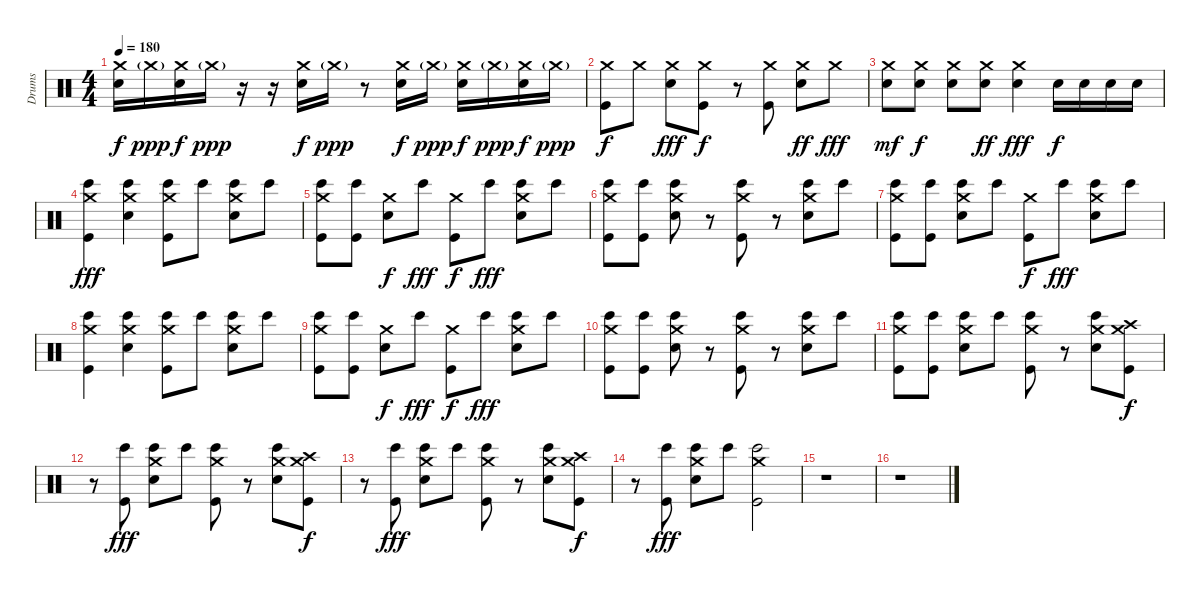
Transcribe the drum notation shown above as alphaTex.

\track ("Drums" "Drums") {instrument percussion}
\staff {score}
\articulation defaults
\ts (4 4)
\tempo 180
\clef neutral
\ks c
("Crash medium (hit)" "Electric Snare (hit)").16{dy f} "Crash medium (hit)"{g}.16{dy ppp} ("Crash medium (hit)" "Electric Snare (hit)").16{dy f} "Crash medium (hit)"{g}.16{dy ppp} r.16 r.16 ("Crash medium (hit)" "Electric Snare (hit)").16{dy f} "Crash medium (hit)"{g}.16{dy ppp} r.8 ("Crash medium (hit)" "Electric Snare (hit)").16{dy f} "Crash medium (hit)"{g}.16{dy ppp} ("Crash medium (hit)" "Electric Snare (hit)").16{dy f} "Crash medium (hit)"{g}.16{dy ppp} ("Crash medium (hit)" "Electric Snare (hit)").16{dy f} "Crash medium (hit)"{g}.16{dy ppp} |
("Crash medium (hit)" "Kick (hit)").8{dy f} "Crash medium (hit)".8 ("Crash medium (hit)" "Electric Snare (hit)").8{dy fff} ("Crash medium (hit)" "Kick (hit)").8{dy f} r.8 ("Crash medium (hit)" "Kick (hit)").8 ("Crash medium (hit)" "Electric Snare (hit)").8{dy ff} "Crash medium (hit)".8{dy fff} |
("Crash medium (hit)" "Electric Snare (hit)").8{dy mf} ("Crash medium (hit)" "Electric Snare (hit)").8{dy f} ("Crash medium (hit)" "Electric Snare (hit)").8 ("Crash medium (hit)" "Electric Snare (hit)").8{dy ff} ("Crash medium (hit)" "Electric Snare (hit)").4{dy fff} "Electric Snare (hit)".16{dy f} "Electric Snare (hit)".16 "Electric Snare (hit)".16 "Electric Snare (hit)".16 |
("Crash medium (hit)" "Bongo High (hit)" "Kick (hit)").4{dy fff} ("Crash medium (hit)" "Electric Snare (hit)" "Bongo High (hit)").4 ("Crash medium (hit)" "Bongo High (hit)" "Kick (hit)").8 "Bongo High (hit)".8 ("Crash medium (hit)" "Electric Snare (hit)" "Bongo High (hit)").8 "Bongo High (hit)".8 |
("Crash medium (hit)" "Bongo High (hit)" "Kick (hit)").8 ("Bongo High (hit)" "Kick (hit)").8 ("Crash medium (hit)" "Electric Snare (hit)").8{dy f} "Bongo High (hit)".8{dy fff} ("Crash medium (hit)" "Kick (hit)").8{dy f} "Bongo High (hit)".8{dy fff} ("Crash medium (hit)" "Electric Snare (hit)" "Bongo High (hit)").8 "Bongo High (hit)".8 |
("Crash medium (hit)" "Bongo High (hit)" "Kick (hit)").8 ("Bongo High (hit)" "Kick (hit)").8 ("Crash medium (hit)" "Electric Snare (hit)" "Bongo High (hit)").8 r.8 ("Crash medium (hit)" "Bongo High (hit)" "Kick (hit)").8 r.8 ("Crash medium (hit)" "Electric Snare (hit)" "Bongo High (hit)").8 "Bongo High (hit)".8 |
("Crash medium (hit)" "Bongo High (hit)" "Kick (hit)").8 ("Bongo High (hit)" "Kick (hit)").8 ("Crash medium (hit)" "Electric Snare (hit)" "Bongo High (hit)").8 "Bongo High (hit)".8 ("Crash medium (hit)" "Kick (hit)").8{dy f} "Bongo High (hit)".8{dy fff} ("Crash medium (hit)" "Electric Snare (hit)" "Bongo High (hit)").8 "Bongo High (hit)".8 |
("Crash medium (hit)" "Bongo High (hit)" "Kick (hit)").4 ("Crash medium (hit)" "Electric Snare (hit)" "Bongo High (hit)").4 ("Crash medium (hit)" "Bongo High (hit)" "Kick (hit)").8 "Bongo High (hit)".8 ("Crash medium (hit)" "Electric Snare (hit)" "Bongo High (hit)").8 "Bongo High (hit)".8 |
("Crash medium (hit)" "Bongo High (hit)" "Kick (hit)").8 ("Bongo High (hit)" "Kick (hit)").8 ("Crash medium (hit)" "Electric Snare (hit)").8{dy f} "Bongo High (hit)".8{dy fff} ("Crash medium (hit)" "Kick (hit)").8{dy f} "Bongo High (hit)".8{dy fff} ("Crash medium (hit)" "Electric Snare (hit)" "Bongo High (hit)").8 "Bongo High (hit)".8 |
("Crash medium (hit)" "Bongo High (hit)" "Kick (hit)").8 ("Bongo High (hit)" "Kick (hit)").8 ("Crash medium (hit)" "Electric Snare (hit)" "Bongo High (hit)").8 r.8 ("Crash medium (hit)" "Bongo High (hit)" "Kick (hit)").8 r.8 ("Crash medium (hit)" "Electric Snare (hit)" "Bongo High (hit)").8 "Bongo High (hit)".8 |
("Crash medium (hit)" "Bongo High (hit)" "Kick (hit)").8 ("Bongo High (hit)" "Kick (hit)").8 ("Crash medium (hit)" "Electric Snare (hit)" "Bongo High (hit)").8 "Bongo High (hit)".8 ("Crash medium (hit)" "Bongo High (hit)" "Kick (hit)").8 r.8 ("Crash medium (hit)" "Electric Snare (hit)" "Bongo High (hit)").8 ("Crash high (hit)" "Crash medium (hit)" "Kick (hit)").8{dy f} |
r.8 ("Bongo High (hit)" "Kick (hit)").8{dy fff} ("Crash medium (hit)" "Electric Snare (hit)" "Bongo High (hit)").8 "Bongo High (hit)".8 ("Crash medium (hit)" "Bongo High (hit)" "Kick (hit)").8 r.8 ("Crash medium (hit)" "Electric Snare (hit)" "Bongo High (hit)").8 ("Crash high (hit)" "Crash medium (hit)" "Kick (hit)").8{dy f} |
r.8 ("Bongo High (hit)" "Kick (hit)").8{dy fff} ("Crash medium (hit)" "Electric Snare (hit)" "Bongo High (hit)").8 "Bongo High (hit)".8 ("Crash medium (hit)" "Bongo High (hit)" "Kick (hit)").8 r.8 ("Crash medium (hit)" "Electric Snare (hit)" "Bongo High (hit)").8 ("Crash high (hit)" "Crash medium (hit)" "Kick (hit)").8{dy f} |
r.8 ("Bongo High (hit)" "Kick (hit)").8{dy fff} ("Crash medium (hit)" "Electric Snare (hit)" "Bongo High (hit)").8 "Bongo High (hit)".8 ("Crash medium (hit)" "Bongo High (hit)" "Kick (hit)").2 |
r.1 |
r.1
